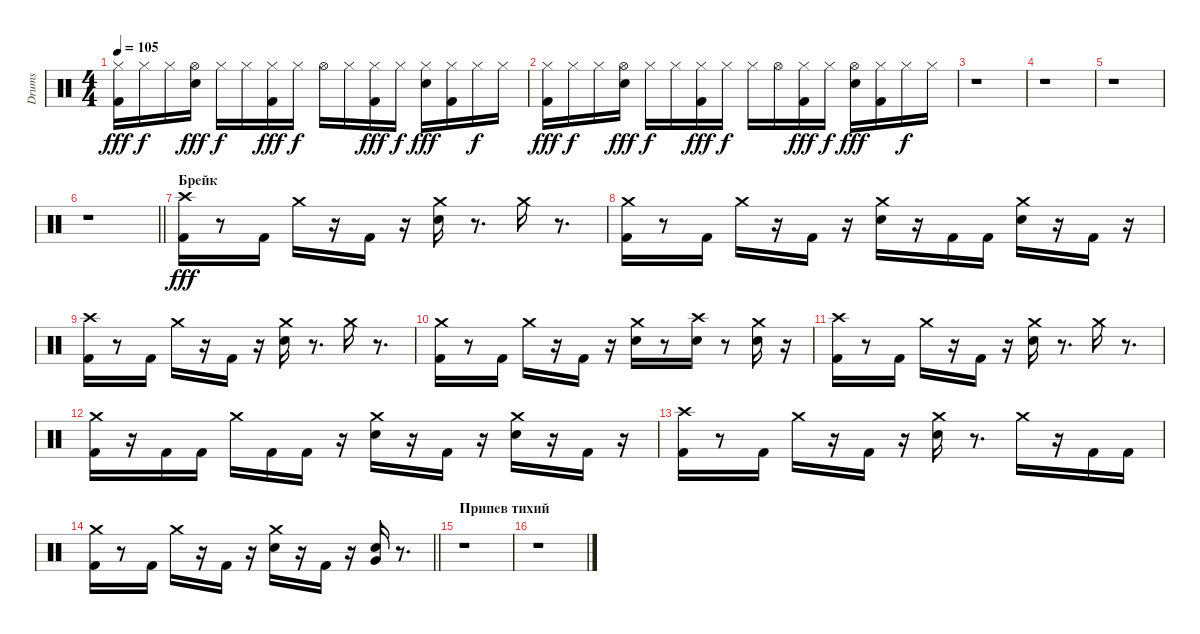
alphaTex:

\track ("Drums" "Drums") {instrument percussion}
\staff {score}
\articulation defaults
\ts (4 4)
\tempo 105
\clef neutral
\ks c
("Kick (hit) 2" "Hi-Hat (closed)").16{dy fff} "Hi-Hat (closed)".16{dy f} "Hi-Hat (closed)".16 ("Electric Snare (hit)" "Hi-Hat (open)").16{dy fff} "Hi-Hat (closed)".16{dy f} "Hi-Hat (closed)".16 ("Kick (hit) 2" "Hi-Hat (closed)").16{dy fff} "Hi-Hat (closed)".16{dy f} "Hi-Hat (open)".16 "Hi-Hat (closed)".16 ("Kick (hit) 2" "Hi-Hat (closed)").16{dy fff} "Hi-Hat (closed)".16{dy f} ("Electric Snare (hit)" "Hi-Hat (closed)").16{dy fff} ("Kick (hit) 2" "Hi-Hat (closed)").16 "Hi-Hat (closed)".16{dy f} "Hi-Hat (closed)".16 |
("Kick (hit) 2" "Hi-Hat (closed)").16{dy fff} "Hi-Hat (closed)".16{dy f} "Hi-Hat (closed)".16 ("Electric Snare (hit)" "Hi-Hat (open)").16{dy fff} "Hi-Hat (closed)".16{dy f} "Hi-Hat (closed)".16 ("Kick (hit) 2" "Hi-Hat (closed)").16{dy fff} "Hi-Hat (closed)".16{dy f} "Hi-Hat (closed)".16 "Hi-Hat (open)".16 ("Kick (hit) 2" "Hi-Hat (closed)").16{dy fff} "Hi-Hat (closed)".16{dy f} ("Electric Snare (hit)" "Hi-Hat (open)").16{dy fff} ("Kick (hit) 2" "Hi-Hat (closed)").16 "Hi-Hat (closed)".16{dy f} "Hi-Hat (closed)".16 |
r.1 |
r.1 |
r.1 |
\barLineRight lightlight
r.1 |
\section ("" "Брейк")
("Kick (hit) 2" "Crash high (hit)").16{dy fff} r.8 "Kick (hit) 2".16 "Crash medium (hit)".16 r.16 "Kick (hit) 2".16 r.16 ("Electric Snare (hit)" "Crash medium (hit)").16 r.8{d} "Crash medium (hit)".16 r.8{d} |
("Kick (hit) 2" "Crash medium (hit)").16 r.8 "Kick (hit) 2".16 "Crash medium (hit)".16 r.16 "Kick (hit) 2".16 r.16 ("Electric Snare (hit)" "Crash medium (hit)").16 r.16 "Kick (hit) 2".16 "Kick (hit) 2".16 ("Electric Snare (hit)" "Crash medium (hit)").16 r.16 "Kick (hit) 2".16 r.16 |
("Kick (hit) 2" "Crash high (hit)").16 r.8 "Kick (hit) 2".16 "Crash medium (hit)".16 r.16 "Kick (hit) 2".16 r.16 ("Electric Snare (hit)" "Crash medium (hit)").16 r.8{d} "Crash medium (hit)".16 r.8{d} |
("Kick (hit) 2" "Crash medium (hit)").16 r.8 "Kick (hit) 2".16 "Crash medium (hit)".16 r.16 "Kick (hit) 2".16 r.16 ("Electric Snare (hit)" "Crash medium (hit)").16 r.8 ("Electric Snare (hit)" "Crash high (hit)").16 r.8 ("Electric Snare (hit)" "Crash medium (hit)").16 r.16 |
("Kick (hit) 2" "Crash high (hit)").16 r.8 "Kick (hit) 2".16 "Crash medium (hit)".16 r.16 "Kick (hit) 2".16 r.16 ("Electric Snare (hit)" "Crash medium (hit)").16 r.8{d} "Crash medium (hit)".16 r.8{d} |
("Kick (hit) 2" "Crash medium (hit)").16 r.16 "Kick (hit) 2".16 "Kick (hit) 2".16 "Crash medium (hit)".16 "Kick (hit) 2".16 "Kick (hit) 2".16 r.16 ("Electric Snare (hit)" "Crash medium (hit)").16 r.16 "Kick (hit) 2".16 r.16 ("Electric Snare (hit)" "Crash medium (hit)").16 r.16 "Kick (hit) 2".16 r.16 |
("Kick (hit) 2" "Crash high (hit)").16 r.8 "Kick (hit) 2".16 "Crash medium (hit)".16 r.16 "Kick (hit) 2".16 r.16 ("Electric Snare (hit)" "Crash medium (hit)").16 r.8{d} "Crash medium (hit)".16 r.16 "Kick (hit) 2".16 "Kick (hit) 2".16 |
\barLineRight lightlight
("Kick (hit) 2" "Crash medium (hit)").16 r.8 "Kick (hit) 2".16 "Crash medium (hit)".16 r.16 "Kick (hit) 2".16 r.16 ("Electric Snare (hit)" "Crash medium (hit)").16 r.16 "Kick (hit) 2".16 r.16 ("Electric Snare (hit)" "Very Low Tom (hit)").16 r.8{d} |
\section ("" "Припев тихий")
r.1 |
r.1
